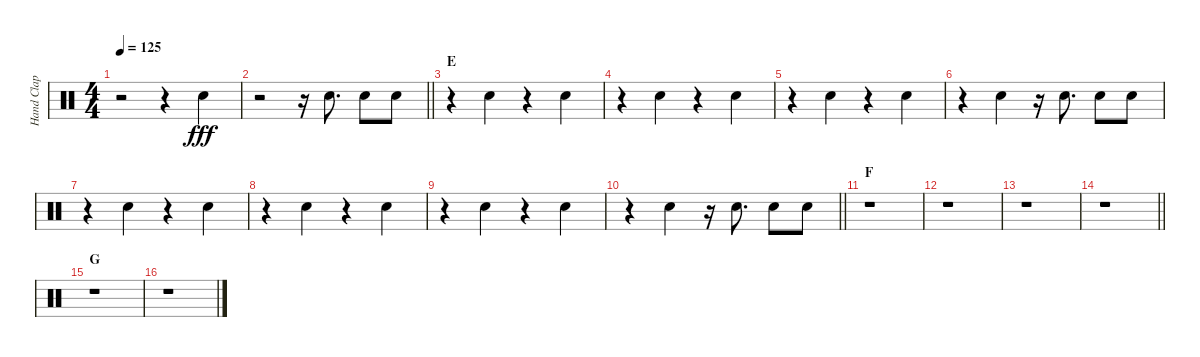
\track ("Hand Clap" "Hand Clap") {instrument percussion}
\staff {score}
\articulation defaults
\ts (4 4)
\tempo 125
\clef neutral
\ks c
r.2{dy fff} r.4 "Hand Clap (hit)".4 |
\barLineRight lightlight
r.2 r.16 "Hand Clap (hit)".8{d} "Hand Clap (hit)".8 "Hand Clap (hit)".8 |
\section ("" "E")
r.4 "Hand Clap (hit)".4 r.4 "Hand Clap (hit)".4 |
r.4 "Hand Clap (hit)".4 r.4 "Hand Clap (hit)".4 |
r.4 "Hand Clap (hit)".4 r.4 "Hand Clap (hit)".4 |
r.4 "Hand Clap (hit)".4 r.16 "Hand Clap (hit)".8{d} "Hand Clap (hit)".8 "Hand Clap (hit)".8 |
r.4 "Hand Clap (hit)".4 r.4 "Hand Clap (hit)".4 |
r.4 "Hand Clap (hit)".4 r.4 "Hand Clap (hit)".4 |
r.4 "Hand Clap (hit)".4 r.4 "Hand Clap (hit)".4 |
\barLineRight lightlight
r.4 "Hand Clap (hit)".4 r.16 "Hand Clap (hit)".8{d} "Hand Clap (hit)".8 "Hand Clap (hit)".8 |
\section ("" "F")
r.1 |
r.1 |
r.1 |
\barLineRight lightlight
r.1 |
\section ("" "G")
r.1 |
r.1
